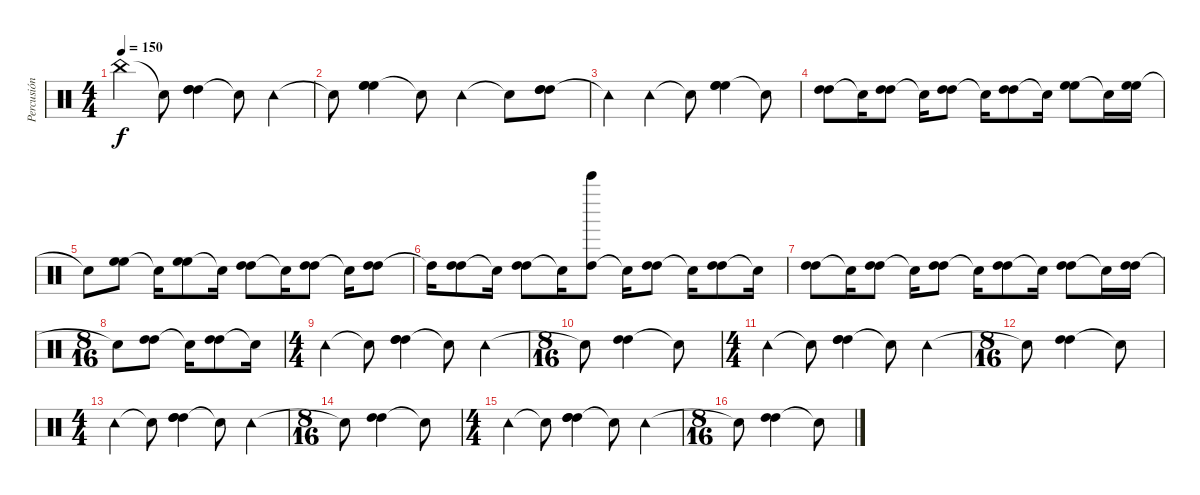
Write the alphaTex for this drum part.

\track ("Percusión" "Percusión") {instrument percussion}
\staff {score}
\articulation defaults
\ts (4 4)
\tempo 150
\clef neutral
\ks c "China (hit)".4{dy f} "Snare (hit)"{t}.8
("High Tom (hit)" "High Tom (hit)" "High Tom (hit)").4 "Snare (hit)"{t}.8 "Tambourine (hit)".4 |
"Snare (hit)"{t}.8 ("High Floor Tom (hit)" "High Floor Tom (hit)" "High Floor Tom (hit)").4 "Snare (hit)"{t}.8 "Tambourine (hit)".4 "Snare (hit)"{t}.8 ("High Tom (hit)" "High Tom (hit)" "High Tom (hit)").8 |
"Tambourine (hit)"{t}.4 "Tambourine (hit)".4 "Snare (hit)"{t}.8 ("High Floor Tom (hit)" "High Floor Tom (hit)" "High Floor Tom (hit)").4 "Snare (hit)"{t}.8 |
("High Tom (hit)" "High Tom (hit)").8 "Snare (hit)"{t}.16 ("High Tom (hit)" "High Tom (hit)").8 "Snare (hit)"{t}.16 ("High Tom (hit)" "High Tom (hit)").8 "Snare (hit)"{t}.16 ("High Tom (hit)" "High Tom (hit)").8 "Snare (hit)"{t}.16 ("High Floor Tom (hit)" "High Floor Tom (hit)").8 "Snare (hit)"{t}.16 ("High Floor Tom (hit)" "High Floor Tom (hit)").16 |
"Snare (hit)"{t}.8 ("High Floor Tom (hit)" "High Floor Tom (hit)").8 "Snare (hit)"{t}.16 ("High Floor Tom (hit)" "High Floor Tom (hit)").8 "Snare (hit)"{t}.16 ("High Tom (hit)" "High Tom (hit)").8 "Snare (hit)"{t}.16 ("High Tom (hit)" "High Tom (hit)").8 "Snare (hit)"{t}.16 ("High Tom (hit)" "High Tom (hit)").8 |
"High Tom (hit)"{t}.16 ("High Tom (hit)" "High Tom (hit)").8 "Snare (hit)"{t}.16 ("High Tom (hit)" "High Tom (hit)").8 "Snare (hit)"{t}.16 ("High Tom (hit)" "Bell Tree (hit)").8 "Snare (hit)"{t}.16 ("High Tom (hit)" "High Tom (hit)").8 "Snare (hit)"{t}.16 ("High Tom (hit)" "High Tom (hit)").8 "Snare (hit)"{t}.16 |
("High Tom (hit)" "High Tom (hit)").8 "Snare (hit)"{t}.16 ("High Tom (hit)" "High Tom (hit)").8 "Snare (hit)"{t}.16 ("High Tom (hit)" "High Tom (hit)").8 "Snare (hit)"{t}.16 ("High Tom (hit)" "High Tom (hit)").8 "Snare (hit)"{t}.16 ("High Tom (hit)" "High Tom (hit)").8 "Snare (hit)"{t}.16 ("High Tom (hit)" "High Tom (hit)").16 |
\ts (8 16)
"Snare (hit)"{t}.8 ("High Tom (hit)" "High Tom (hit)").8 "Snare (hit)"{t}.16 ("High Tom (hit)" "High Tom (hit)").8 "Snare (hit)"{t}.16 |
\ts (4 4)
"Tambourine (hit)".4 "Snare (hit)"{t}.8 ("High Tom (hit)" "High Tom (hit)" "High Tom (hit)").4 "Snare (hit)"{t}.8 "Tambourine (hit)".4 |
\ts (8 16)
"Snare (hit)"{t}.8 ("High Tom (hit)" "High Tom (hit)").4 "Snare (hit)"{t}.8 |
\ts (4 4)
"Tambourine (hit)".4 "Snare (hit)"{t}.8 ("High Tom (hit)" "High Tom (hit)" "High Tom (hit)").4 "Snare (hit)"{t}.8 "Tambourine (hit)".4 |
\ts (8 16)
"Snare (hit)"{t}.8 ("High Tom (hit)" "High Tom (hit)").4 "Snare (hit)"{t}.8 |
\ts (4 4)
"Tambourine (hit)".4 "Snare (hit)"{t}.8 ("High Tom (hit)" "High Tom (hit)" "High Tom (hit)").4 "Snare (hit)"{t}.8 "Tambourine (hit)".4 |
\ts (8 16)
"Snare (hit)"{t}.8 ("High Tom (hit)" "High Tom (hit)").4 "Snare (hit)"{t}.8 |
\ts (4 4)
"Tambourine (hit)".4 "Snare (hit)"{t}.8 ("High Tom (hit)" "High Tom (hit)" "High Tom (hit)").4 "Snare (hit)"{t}.8 "Tambourine (hit)".4 |
\ts (8 16)
"Snare (hit)"{t}.8 ("High Tom (hit)" "High Tom (hit)").4 "Snare (hit)"{t}.8
